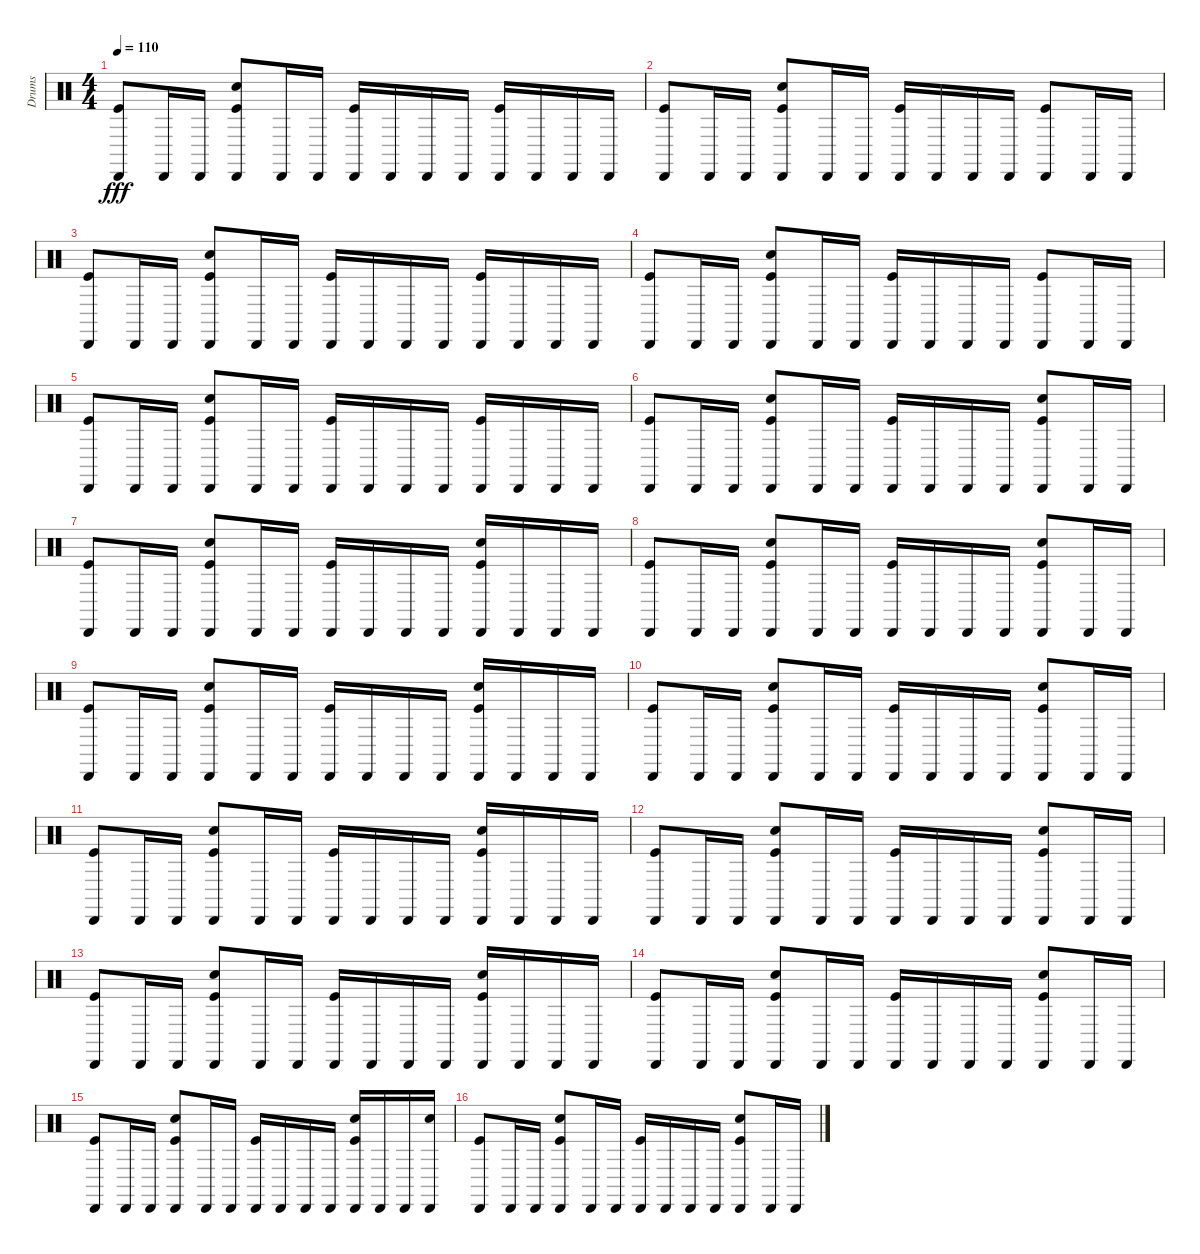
\track ("Drums" "Drums") {instrument percussion}
\staff {score}
\articulation defaults
\ts (4 4)
\tempo 110
\clef neutral
\ks c
("Cabasa (hit)" "Kick (hit)").8{dy fff} "Cabasa (hit)".16 "Cabasa (hit)".16 ("Cabasa (hit)" "Snare (hit) 2" "Kick (hit)").8 "Cabasa (hit)".16 "Cabasa (hit)".16 ("Cabasa (hit)" "Kick (hit)").16 "Cabasa (hit)".16 "Cabasa (hit)".16 "Cabasa (hit)".16 ("Cabasa (hit)" "Kick (hit)").16 "Cabasa (hit)".16 "Cabasa (hit)".16 "Cabasa (hit)".16 |
("Cabasa (hit)" "Kick (hit)").8 "Cabasa (hit)".16 "Cabasa (hit)".16 ("Cabasa (hit)" "Snare (hit) 2" "Kick (hit)").8 "Cabasa (hit)".16 "Cabasa (hit)".16 ("Cabasa (hit)" "Kick (hit)").16 "Cabasa (hit)".16 "Cabasa (hit)".16 "Cabasa (hit)".16 ("Cabasa (hit)" "Kick (hit)").8 "Cabasa (hit)".16 "Cabasa (hit)".16 |
("Cabasa (hit)" "Kick (hit)").8 "Cabasa (hit)".16 "Cabasa (hit)".16 ("Cabasa (hit)" "Snare (hit) 2" "Kick (hit)").8 "Cabasa (hit)".16 "Cabasa (hit)".16 ("Cabasa (hit)" "Kick (hit)").16 "Cabasa (hit)".16 "Cabasa (hit)".16 "Cabasa (hit)".16 ("Cabasa (hit)" "Kick (hit)").16 "Cabasa (hit)".16 "Cabasa (hit)".16 "Cabasa (hit)".16 |
("Cabasa (hit)" "Kick (hit)").8 "Cabasa (hit)".16 "Cabasa (hit)".16 ("Cabasa (hit)" "Snare (hit) 2" "Kick (hit)").8 "Cabasa (hit)".16 "Cabasa (hit)".16 ("Cabasa (hit)" "Kick (hit)").16 "Cabasa (hit)".16 "Cabasa (hit)".16 "Cabasa (hit)".16 ("Cabasa (hit)" "Kick (hit)").8 "Cabasa (hit)".16 "Cabasa (hit)".16 |
("Cabasa (hit)" "Kick (hit)").8 "Cabasa (hit)".16 "Cabasa (hit)".16 ("Cabasa (hit)" "Snare (hit) 2" "Kick (hit)").8 "Cabasa (hit)".16 "Cabasa (hit)".16 ("Cabasa (hit)" "Kick (hit)").16 "Cabasa (hit)".16 "Cabasa (hit)".16 "Cabasa (hit)".16 ("Cabasa (hit)" "Kick (hit)").16 "Cabasa (hit)".16 "Cabasa (hit)".16 "Cabasa (hit)".16 |
("Cabasa (hit)" "Kick (hit)").8 "Cabasa (hit)".16 "Cabasa (hit)".16 ("Cabasa (hit)" "Snare (hit) 2" "Kick (hit)").8 "Cabasa (hit)".16 "Cabasa (hit)".16 ("Cabasa (hit)" "Kick (hit)").16 "Cabasa (hit)".16 "Cabasa (hit)".16 "Cabasa (hit)".16 ("Cabasa (hit)" "Snare (hit) 2" "Kick (hit)").8 "Cabasa (hit)".16 "Cabasa (hit)".16 |
("Cabasa (hit)" "Kick (hit)").8 "Cabasa (hit)".16 "Cabasa (hit)".16 ("Cabasa (hit)" "Snare (hit) 2" "Kick (hit)").8 "Cabasa (hit)".16 "Cabasa (hit)".16 ("Cabasa (hit)" "Kick (hit)").16 "Cabasa (hit)".16 "Cabasa (hit)".16 "Cabasa (hit)".16 ("Cabasa (hit)" "Snare (hit) 2" "Kick (hit)").16 "Cabasa (hit)".16 "Cabasa (hit)".16 "Cabasa (hit)".16 |
("Cabasa (hit)" "Kick (hit)").8 "Cabasa (hit)".16 "Cabasa (hit)".16 ("Cabasa (hit)" "Snare (hit) 2" "Kick (hit)").8 "Cabasa (hit)".16 "Cabasa (hit)".16 ("Cabasa (hit)" "Kick (hit)").16 "Cabasa (hit)".16 "Cabasa (hit)".16 "Cabasa (hit)".16 ("Cabasa (hit)" "Snare (hit) 2" "Kick (hit)").8 "Cabasa (hit)".16 "Cabasa (hit)".16 |
("Cabasa (hit)" "Kick (hit)").8 "Cabasa (hit)".16 "Cabasa (hit)".16 ("Cabasa (hit)" "Snare (hit) 2" "Kick (hit)").8 "Cabasa (hit)".16 "Cabasa (hit)".16 ("Cabasa (hit)" "Kick (hit)").16 "Cabasa (hit)".16 "Cabasa (hit)".16 "Cabasa (hit)".16 ("Cabasa (hit)" "Snare (hit) 2" "Kick (hit)").16 "Cabasa (hit)".16 "Cabasa (hit)".16 "Cabasa (hit)".16 |
("Cabasa (hit)" "Kick (hit)").8 "Cabasa (hit)".16 "Cabasa (hit)".16 ("Cabasa (hit)" "Snare (hit) 2" "Kick (hit)").8 "Cabasa (hit)".16 "Cabasa (hit)".16 ("Cabasa (hit)" "Kick (hit)").16 "Cabasa (hit)".16 "Cabasa (hit)".16 "Cabasa (hit)".16 ("Cabasa (hit)" "Snare (hit) 2" "Kick (hit)").8 "Cabasa (hit)".16 "Cabasa (hit)".16 |
("Cabasa (hit)" "Kick (hit)").8 "Cabasa (hit)".16 "Cabasa (hit)".16 ("Cabasa (hit)" "Snare (hit) 2" "Kick (hit)").8 "Cabasa (hit)".16 "Cabasa (hit)".16 ("Cabasa (hit)" "Kick (hit)").16 "Cabasa (hit)".16 "Cabasa (hit)".16 "Cabasa (hit)".16 ("Cabasa (hit)" "Snare (hit) 2" "Kick (hit)").16 "Cabasa (hit)".16 "Cabasa (hit)".16 "Cabasa (hit)".16 |
("Cabasa (hit)" "Kick (hit)").8 "Cabasa (hit)".16 "Cabasa (hit)".16 ("Cabasa (hit)" "Snare (hit) 2" "Kick (hit)").8 "Cabasa (hit)".16 "Cabasa (hit)".16 ("Cabasa (hit)" "Kick (hit)").16 "Cabasa (hit)".16 "Cabasa (hit)".16 "Cabasa (hit)".16 ("Cabasa (hit)" "Snare (hit) 2" "Kick (hit)").8 "Cabasa (hit)".16 "Cabasa (hit)".16 |
("Cabasa (hit)" "Kick (hit)").8 "Cabasa (hit)".16 "Cabasa (hit)".16 ("Cabasa (hit)" "Snare (hit) 2" "Kick (hit)").8 "Cabasa (hit)".16 "Cabasa (hit)".16 ("Cabasa (hit)" "Kick (hit)").16 "Cabasa (hit)".16 "Cabasa (hit)".16 "Cabasa (hit)".16 ("Cabasa (hit)" "Snare (hit) 2" "Kick (hit)").16 "Cabasa (hit)".16 "Cabasa (hit)".16 "Cabasa (hit)".16 |
("Cabasa (hit)" "Kick (hit)").8 "Cabasa (hit)".16 "Cabasa (hit)".16 ("Cabasa (hit)" "Snare (hit) 2" "Kick (hit)").8 "Cabasa (hit)".16 "Cabasa (hit)".16 ("Cabasa (hit)" "Kick (hit)").16 "Cabasa (hit)".16 "Cabasa (hit)".16 "Cabasa (hit)".16 ("Cabasa (hit)" "Snare (hit) 2" "Kick (hit)").8 "Cabasa (hit)".16 "Cabasa (hit)".16 |
("Cabasa (hit)" "Kick (hit)").8 "Cabasa (hit)".16 "Cabasa (hit)".16 ("Cabasa (hit)" "Snare (hit) 2" "Kick (hit)").8 "Cabasa (hit)".16 "Cabasa (hit)".16 ("Cabasa (hit)" "Kick (hit)").16 "Cabasa (hit)".16 "Cabasa (hit)".16 "Cabasa (hit)".16 ("Cabasa (hit)" "Snare (hit) 2" "Kick (hit)").16 "Cabasa (hit)".16 "Cabasa (hit)".16 ("Cabasa (hit)" "Snare (hit) 2").16 |
("Cabasa (hit)" "Kick (hit)").8 "Cabasa (hit)".16 "Cabasa (hit)".16 ("Cabasa (hit)" "Snare (hit) 2" "Kick (hit)").8 "Cabasa (hit)".16 "Cabasa (hit)".16 ("Cabasa (hit)" "Kick (hit)").16 "Cabasa (hit)".16 "Cabasa (hit)".16 "Cabasa (hit)".16 ("Cabasa (hit)" "Snare (hit) 2" "Kick (hit)").8 "Cabasa (hit)".16 "Cabasa (hit)".16
